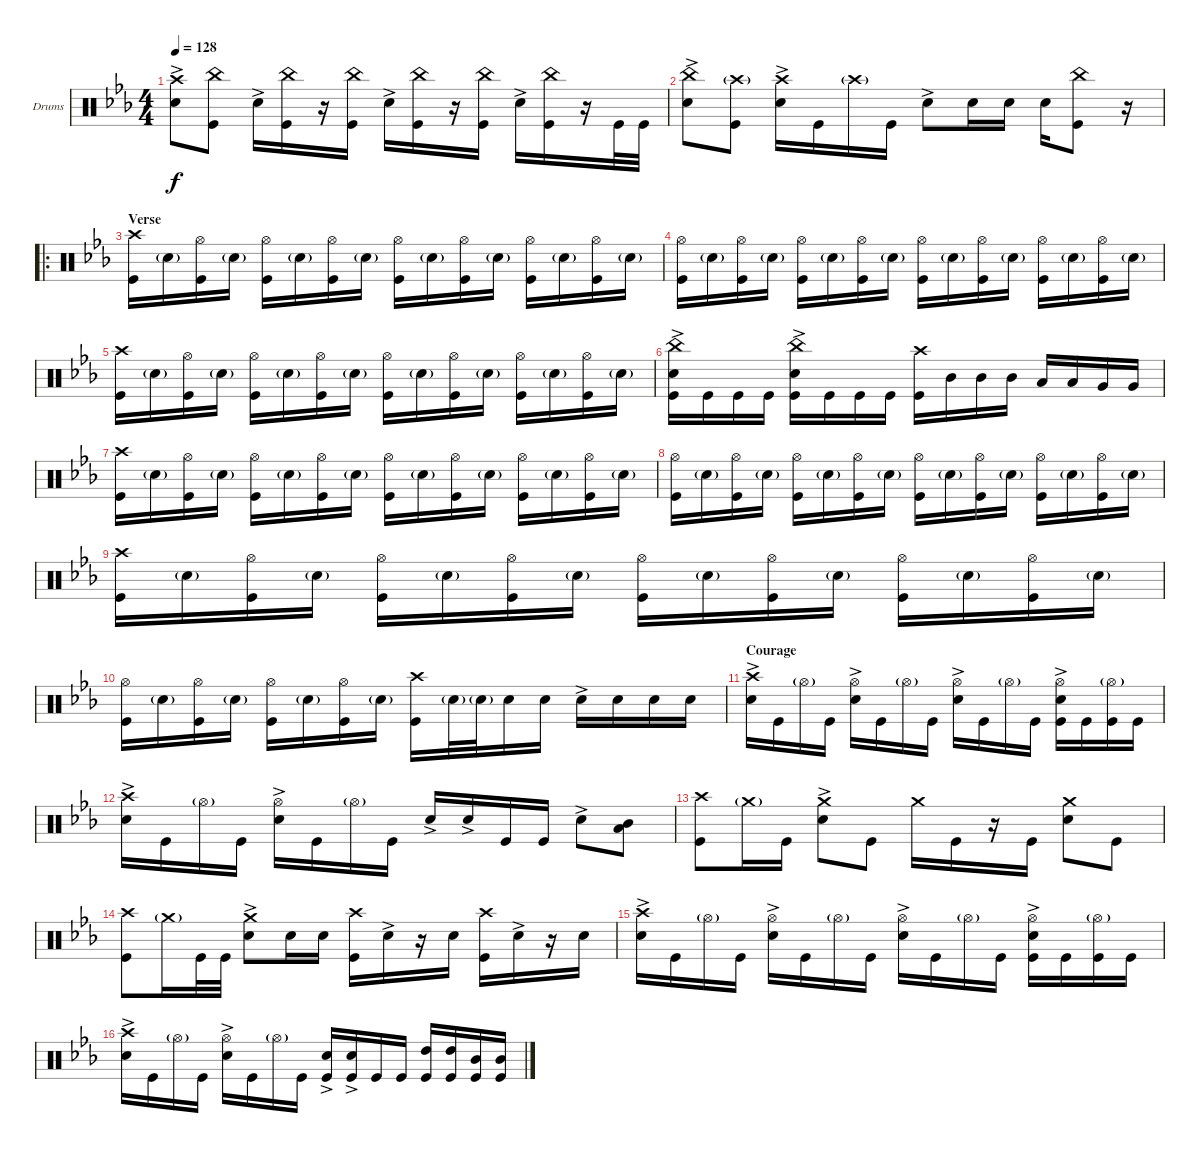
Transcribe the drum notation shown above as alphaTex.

\bracketExtendMode groupsimilarinstruments
\firstSystemTrackNameOrientation horizontal
\otherSystemsTrackNameOrientation horizontal
\track ("Drumkit" "Drums") {instrument percussion}
\staff {score}
\articulation defaults
\ts (4 4)
\tempo 128
\clef neutral
\ks cminor
("Snare (hit) 2"{ac} "Crash high (hit)").8{dy f} ("Kick (hit)" "China (hit)").8 "Snare (hit) 2"{ac}.16 ("Kick (hit)" "China (hit)").16 r.16 ("Kick (hit)" "China (hit)").16 "Snare (hit) 2"{ac}.16 ("Kick (hit)" "China (hit)").16 r.16 ("Kick (hit)" "China (hit)").16 "Snare (hit) 2"{ac}.16 ("Kick (hit)" "China (hit)").16 r.16 "Kick (hit)".32 "Kick (hit)".32 |
("Snare (hit) 2"{ac} "China (hit)").8 ("Kick (hit)" "Crash high (hit)"{g}).8 ("Snare (hit) 2"{ac} "Crash high (hit)").16 "Kick (hit)".16 "Crash high (hit)"{g}.16 "Kick (hit)".16 "Snare (hit) 2"{ac}.8 "Snare (hit) 2".16 "Snare (hit) 2".16 "Snare (hit) 2".16 ("Kick (hit)" "China (hit)").8 r.16 |
\ro
\section ("" "Verse")
("Kick (hit)" "Crash high (hit)").16 "Snare (hit) 2"{g}.16 ("Kick (hit)" "Hi-Hat (open)").16 "Snare (hit) 2"{g}.16 ("Kick (hit)" "Hi-Hat (open)").16 "Snare (hit) 2"{g}.16 ("Kick (hit)" "Hi-Hat (open)").16 "Snare (hit) 2"{g}.16 ("Kick (hit)" "Hi-Hat (open)").16 "Snare (hit) 2"{g}.16 ("Kick (hit)" "Hi-Hat (open)").16 "Snare (hit) 2"{g}.16 ("Kick (hit)" "Hi-Hat (open)").16 "Snare (hit) 2"{g}.16 ("Kick (hit)" "Hi-Hat (open)").16 "Snare (hit) 2"{g}.16 |
("Kick (hit)" "Hi-Hat (open)").16 "Snare (hit) 2"{g}.16 ("Kick (hit)" "Hi-Hat (open)").16 "Snare (hit) 2"{g}.16 ("Kick (hit)" "Hi-Hat (open)").16 "Snare (hit) 2"{g}.16 ("Kick (hit)" "Hi-Hat (open)").16 "Snare (hit) 2"{g}.16 ("Kick (hit)" "Hi-Hat (open)").16 "Snare (hit) 2"{g}.16 ("Kick (hit)" "Hi-Hat (open)").16 "Snare (hit) 2"{g}.16 ("Kick (hit)" "Hi-Hat (open)").16 "Snare (hit) 2"{g}.16 ("Kick (hit)" "Hi-Hat (open)").16 "Snare (hit) 2"{g}.16 |
("Kick (hit)" "Crash high (hit)").16 "Snare (hit) 2"{g}.16 ("Kick (hit)" "Hi-Hat (open)").16 "Snare (hit) 2"{g}.16 ("Kick (hit)" "Hi-Hat (open)").16 "Snare (hit) 2"{g}.16 ("Kick (hit)" "Hi-Hat (open)").16 "Snare (hit) 2"{g}.16 ("Kick (hit)" "Hi-Hat (open)").16 "Snare (hit) 2"{g}.16 ("Kick (hit)" "Hi-Hat (open)").16 "Snare (hit) 2"{g}.16 ("Kick (hit)" "Hi-Hat (open)").16 "Snare (hit) 2"{g}.16 ("Kick (hit)" "Hi-Hat (open)").16 "Snare (hit) 2"{g}.16 |
("Kick (hit)" "Snare (hit) 2"{ac} "China (hit)").16 "Kick (hit)".16 "Kick (hit)".16 "Kick (hit)".16 ("Kick (hit)" "Snare (hit) 2"{ac} "China (hit)").16 "Kick (hit)".16 "Kick (hit)".16 "Kick (hit)".16 ("Kick (hit)" "Crash high (hit)").16 "Mid Tom (hit)".16 "Mid Tom (hit)".16 "Mid Tom (hit)".16 "Low Tom (hit)".16 "Low Tom (hit)".16 "Very Low Tom (hit)".16 "Very Low Tom (hit)".16 |
("Kick (hit)" "Crash high (hit)").16 "Snare (hit) 2"{g}.16 ("Kick (hit)" "Hi-Hat (open)").16 "Snare (hit) 2"{g}.16 ("Kick (hit)" "Hi-Hat (open)").16 "Snare (hit) 2"{g}.16 ("Kick (hit)" "Hi-Hat (open)").16 "Snare (hit) 2"{g}.16 ("Kick (hit)" "Hi-Hat (open)").16 "Snare (hit) 2"{g}.16 ("Kick (hit)" "Hi-Hat (open)").16 "Snare (hit) 2"{g}.16 ("Kick (hit)" "Hi-Hat (open)").16 "Snare (hit) 2"{g}.16 ("Kick (hit)" "Hi-Hat (open)").16 "Snare (hit) 2"{g}.16 |
("Kick (hit)" "Hi-Hat (open)").16 "Snare (hit) 2"{g}.16 ("Kick (hit)" "Hi-Hat (open)").16 "Snare (hit) 2"{g}.16 ("Kick (hit)" "Hi-Hat (open)").16 "Snare (hit) 2"{g}.16 ("Kick (hit)" "Hi-Hat (open)").16 "Snare (hit) 2"{g}.16 ("Kick (hit)" "Hi-Hat (open)").16 "Snare (hit) 2"{g}.16 ("Kick (hit)" "Hi-Hat (open)").16 "Snare (hit) 2"{g}.16 ("Kick (hit)" "Hi-Hat (open)").16 "Snare (hit) 2"{g}.16 ("Kick (hit)" "Hi-Hat (open)").16 "Snare (hit) 2"{g}.16 |
("Kick (hit)" "Crash high (hit)").16 "Snare (hit) 2"{g}.16 ("Kick (hit)" "Hi-Hat (open)").16 "Snare (hit) 2"{g}.16 ("Kick (hit)" "Hi-Hat (open)").16 "Snare (hit) 2"{g}.16 ("Kick (hit)" "Hi-Hat (open)").16 "Snare (hit) 2"{g}.16 ("Kick (hit)" "Hi-Hat (open)").16 "Snare (hit) 2"{g}.16 ("Kick (hit)" "Hi-Hat (open)").16 "Snare (hit) 2"{g}.16 ("Kick (hit)" "Hi-Hat (open)").16 "Snare (hit) 2"{g}.16 ("Kick (hit)" "Hi-Hat (open)").16 "Snare (hit) 2"{g}.16 |
("Kick (hit)" "Hi-Hat (open)").16 "Snare (hit) 2"{g}.16 ("Kick (hit)" "Hi-Hat (open)").16 "Snare (hit) 2"{g}.16 ("Kick (hit)" "Hi-Hat (open)").16 "Snare (hit) 2"{g}.16 ("Kick (hit)" "Hi-Hat (open)").16 "Snare (hit) 2"{g}.16 ("Kick (hit)" "Crash high (hit)").16 "Snare (hit) 2"{g}.32 "Snare (hit) 2"{g}.32 "Snare (hit) 2".16 "Snare (hit) 2".16 "Snare (hit) 2"{ac}.16 "Snare (hit) 2".16 "Snare (hit) 2".16 "Snare (hit) 2".16 |
\section ("" "Courage")
("Snare (hit) 2"{ac} "Crash high (hit)").16 "Kick (hit)".16 "Hi-Hat (open)"{g}.16 "Kick (hit)".16 ("Snare (hit) 2"{ac} "Hi-Hat (open)").16 "Kick (hit)".16 "Hi-Hat (open)"{g}.16 "Kick (hit)".16 ("Snare (hit) 2"{ac} "Hi-Hat (open)").16 "Kick (hit)".16 "Hi-Hat (open)"{g}.16 "Kick (hit)".16 ("Snare (hit) 2"{ac} "Hi-Hat (open)" "Kick (hit)").16 "Kick (hit)".16 ("Hi-Hat (open)"{g} "Kick (hit)").16 "Kick (hit)".16 |
("Snare (hit) 2"{ac} "Crash high (hit)").16 "Kick (hit)".16 "Hi-Hat (open)"{g}.16 "Kick (hit)".16 ("Snare (hit) 2"{ac} "Hi-Hat (open)").16 "Kick (hit)".16 "Hi-Hat (open)"{g}.16 "Kick (hit)".16 "Snare (hit) 2"{ac}.16 "Snare (hit) 2"{ac}.16 "Kick (hit)".16 "Kick (hit)".16 "Snare (hit) 2"{ac}.8 ("Low Tom (hit)" "Mid Tom (hit)").8 |
("Kick (hit)" "Crash high (hit)").8 "Crash medium (hit)"{g}.16 "Kick (hit)".16 ("Snare (hit) 2"{ac} "Crash medium (hit)").8 "Kick (hit)".8 "Crash medium (hit)".16 "Kick (hit)".16 r.16 "Kick (hit)".16 ("Snare (hit) 2" "Crash medium (hit)").8 "Kick (hit)".8 |
("Kick (hit)" "Crash high (hit)").8 "Crash medium (hit)"{g}.16 "Kick (hit)".32 "Kick (hit)".32 ("Snare (hit) 2"{ac} "Crash medium (hit)").8 "Snare (hit) 2".16 "Snare (hit) 2".16 ("Kick (hit)" "Crash high (hit)").16 "Snare (hit) 2"{ac}.16 r.16 "Snare (hit) 2".16 ("Kick (hit)" "Crash high (hit)").16 "Snare (hit) 2"{ac}.16 r.16 "Snare (hit) 2".16 |
("Snare (hit) 2"{ac} "Crash high (hit)").16 "Kick (hit)".16 "Hi-Hat (open)"{g}.16 "Kick (hit)".16 ("Snare (hit) 2"{ac} "Hi-Hat (open)").16 "Kick (hit)".16 "Hi-Hat (open)"{g}.16 "Kick (hit)".16 ("Snare (hit) 2"{ac} "Hi-Hat (open)").16 "Kick (hit)".16 "Hi-Hat (open)"{g}.16 "Kick (hit)".16 ("Snare (hit) 2"{ac} "Hi-Hat (open)" "Kick (hit)").16 "Kick (hit)".16 ("Hi-Hat (open)"{g} "Kick (hit)").16 "Kick (hit)".16 |
("Snare (hit) 2"{ac} "Crash high (hit)").16 "Kick (hit)".16 "Hi-Hat (open)"{g}.16 "Kick (hit)".16 ("Snare (hit) 2"{ac} "Hi-Hat (open)").16 "Kick (hit)".16 "Hi-Hat (open)"{g}.16 "Kick (hit)".16 ("Snare (hit) 2"{ac} "Kick (hit)").16 ("Snare (hit) 2"{ac} "Kick (hit)").16 "Kick (hit)".16 "Kick (hit)".16 ("High Tom (hit)" "Kick (hit)").16 ("Kick (hit)" "High Tom (hit)").16 ("Kick (hit)" "Mid Tom (hit)").16 ("Kick (hit)" "Mid Tom (hit)").16
